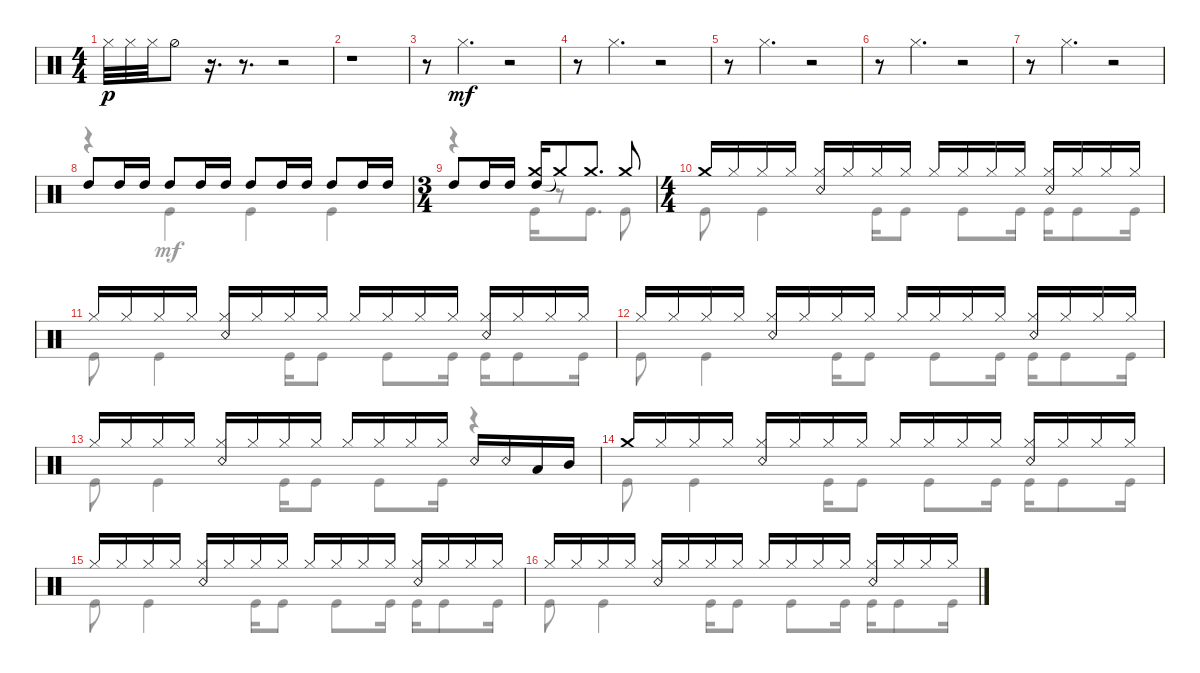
\defaultSystemsLayout 4
\bracketExtendMode groupsimilarinstruments
\singleTrackTrackNamePolicy hidden
\multiTrackTrackNamePolicy hidden
\firstSystemTrackNameOrientation horizontal
\otherSystemsTrackNameOrientation horizontal
\track ("Максим Удалов" "Drums") {instrument percussion}
\staff {score}
\articulation defaults
\voice
\ts (4 4)
\tempo (92 hide)
\clef neutral
\scale
1.02648
\ks c "Hi-Hat (closed)".32{dy p} "Hi-Hat (closed)".32 "Hi-Hat (closed)".32 "Hi-Hat (half)".8
r.16{d} r.8{d} r.2 |
\scale
0.973518 r.1 |
\scale
1.02648 r.8 "Hi-Hat (closed)".4{d dy mf} r.2 |
\scale
0.973518 r.8 "Hi-Hat (closed)".4{d} r.2 |
\scale
1.02648 r.8 "Hi-Hat (closed)".4{d} r.2 |
\scale
0.973518 r.8 "Hi-Hat (closed)".4{d} r.2 |
\scale
1.02648 r.8 "Hi-Hat (closed)".4{d} r.2 |
\tempo (92 hide)
\scale
0.973518 "High Tom (hit)".8 "High Tom (hit)".16 "High Tom (hit)".16 "High Tom (hit)".8 "High Tom (hit)".16 "High Tom (hit)".16 "High Tom (hit)".8 "High Tom (hit)".16 "High Tom (hit)".16 "High Tom (hit)".8 "High Tom (hit)".16 "High Tom (hit)".16 |
\ts (3 4)
\scale
1.02648 "High Tom (hit)".8 "High Tom (hit)".16 "High Tom (hit)".16 ("High Tom (hit)" "Crash medium (hit)").16 "Crash medium (hit)"{t}.8 "Crash medium (hit)".8{d} "Crash medium (hit)".8 |
\ts (4 4)
\tempo (100 hide)
\scale
0.973518 "Crash medium (hit)".16 "Hi-Hat (closed)".16 "Hi-Hat (closed)".16 "Hi-Hat (closed)".16 ("Hi-Hat (closed)" "Snare (rim shot)").16 "Hi-Hat (closed)".16 "Hi-Hat (closed)".16 "Hi-Hat (closed)".16 "Hi-Hat (closed)".16 "Hi-Hat (closed)".16 "Hi-Hat (closed)".16 "Hi-Hat (closed)".16 ("Hi-Hat (closed)" "Snare (rim shot)").16 "Hi-Hat (closed)".16 "Hi-Hat (closed)".16 "Hi-Hat (closed)".16 |
\scale
1.02648 "Hi-Hat (closed)".16 "Hi-Hat (closed)".16 "Hi-Hat (closed)".16 "Hi-Hat (closed)".16 ("Hi-Hat (closed)" "Snare (rim shot)").16 "Hi-Hat (closed)".16 "Hi-Hat (closed)".16 "Hi-Hat (closed)".16 "Hi-Hat (closed)".16 "Hi-Hat (closed)".16 "Hi-Hat (closed)".16 "Hi-Hat (closed)".16 ("Hi-Hat (closed)" "Snare (rim shot)").16 "Hi-Hat (closed)".16 "Hi-Hat (closed)".16 "Hi-Hat (closed)".16 |
\scale
0.973518 "Hi-Hat (closed)".16 "Hi-Hat (closed)".16 "Hi-Hat (closed)".16 "Hi-Hat (closed)".16 ("Hi-Hat (closed)" "Snare (rim shot)").16 "Hi-Hat (closed)".16 "Hi-Hat (closed)".16 "Hi-Hat (closed)".16 "Hi-Hat (closed)".16 "Hi-Hat (closed)".16 "Hi-Hat (closed)".16 "Hi-Hat (closed)".16 ("Hi-Hat (closed)" "Snare (rim shot)").16 "Hi-Hat (closed)".16 "Hi-Hat (closed)".16 "Hi-Hat (closed)".16 |
\scale
1.02648 "Hi-Hat (closed)".16 "Hi-Hat (closed)".16 "Hi-Hat (closed)".16 "Hi-Hat (closed)".16 ("Hi-Hat (closed)" "Snare (rim shot)").16 "Hi-Hat (closed)".16 "Hi-Hat (closed)".16 "Hi-Hat (closed)".16 "Hi-Hat (closed)".16 "Hi-Hat (closed)".16 "Hi-Hat (closed)".16 "Hi-Hat (closed)".16 "Snare (rim shot)".16 "Snare (rim shot)".16 "Low Tom (hit)".16 "Mid Tom (hit)".16 |
\scale
0.973518 "Crash medium (hit)".16 "Hi-Hat (closed)".16 "Hi-Hat (closed)".16 "Hi-Hat (closed)".16 ("Hi-Hat (closed)" "Snare (rim shot)").16 "Hi-Hat (closed)".16 "Hi-Hat (closed)".16 "Hi-Hat (closed)".16 "Hi-Hat (closed)".16 "Hi-Hat (closed)".16 "Hi-Hat (closed)".16 "Hi-Hat (closed)".16 ("Hi-Hat (closed)" "Snare (rim shot)").16 "Hi-Hat (closed)".16 "Hi-Hat (closed)".16 "Hi-Hat (closed)".16 |
\scale
1.02648 "Hi-Hat (closed)".16 "Hi-Hat (closed)".16 "Hi-Hat (closed)".16 "Hi-Hat (closed)".16 ("Hi-Hat (closed)" "Snare (rim shot)").16 "Hi-Hat (closed)".16 "Hi-Hat (closed)".16 "Hi-Hat (closed)".16 "Hi-Hat (closed)".16 "Hi-Hat (closed)".16 "Hi-Hat (closed)".16 "Hi-Hat (closed)".16 ("Hi-Hat (closed)" "Snare (rim shot)").16 "Hi-Hat (closed)".16 "Hi-Hat (closed)".16 "Hi-Hat (closed)".16 |
\scale
0.973518 "Hi-Hat (closed)".16 "Hi-Hat (closed)".16 "Hi-Hat (closed)".16 "Hi-Hat (closed)".16 ("Hi-Hat (closed)" "Snare (rim shot)").16 "Hi-Hat (closed)".16 "Hi-Hat (closed)".16 "Hi-Hat (closed)".16 "Hi-Hat (closed)".16 "Hi-Hat (closed)".16 "Hi-Hat (closed)".16 "Hi-Hat (closed)".16 ("Hi-Hat (closed)" "Snare (rim shot)").16 "Hi-Hat (closed)".16 "Hi-Hat (closed)".16 "Hi-Hat (closed)".16
\voice
\clef neutral
\ottava regular
\simile none
\scale
1.02648
\ks c
|
\scale
0.973518 |
\scale
1.02648 |
\scale
0.973518 |
\scale
1.02648 |
\scale
0.973518 |
\scale
1.02648 |
\scale
0.973518 r.4 "Kick (hit)".4 "Kick (hit)".4 "Kick (hit)".4 |
\scale
1.02648 r.4 "Kick (hit)".16 r.8 "Kick (hit)".8{d} "Kick (hit)".8 |
\scale
0.973518 "Kick (hit)".8 "Kick (hit)".4 "Kick (hit)".16 "Kick (hit)".8 "Kick (hit)".8 "Kick (hit)".16 "Kick (hit)".16 "Kick (hit)".8 "Kick (hit)".16 |
\scale
1.02648 "Kick (hit)".8 "Kick (hit)".4 "Kick (hit)".16 "Kick (hit)".8 "Kick (hit)".8 "Kick (hit)".16 "Kick (hit)".16 "Kick (hit)".8 "Kick (hit)".16 |
\scale
0.973518 "Kick (hit)".8 "Kick (hit)".4 "Kick (hit)".16 "Kick (hit)".8 "Kick (hit)".8 "Kick (hit)".16 "Kick (hit)".16 "Kick (hit)".8 "Kick (hit)".16 |
\scale
1.02648 "Kick (hit)".8 "Kick (hit)".4 "Kick (hit)".16 "Kick (hit)".8 "Kick (hit)".8 "Kick (hit)".16 r.4 |
\scale
0.973518 "Kick (hit)".8 "Kick (hit)".4 "Kick (hit)".16 "Kick (hit)".8 "Kick (hit)".8 "Kick (hit)".16 "Kick (hit)".16 "Kick (hit)".8 "Kick (hit)".16 |
\scale
1.02648 "Kick (hit)".8 "Kick (hit)".4 "Kick (hit)".16 "Kick (hit)".8 "Kick (hit)".8 "Kick (hit)".16 "Kick (hit)".16 "Kick (hit)".8 "Kick (hit)".16 |
\scale
0.973518 "Kick (hit)".8 "Kick (hit)".4 "Kick (hit)".16 "Kick (hit)".8 "Kick (hit)".8 "Kick (hit)".16 "Kick (hit)".16 "Kick (hit)".8 "Kick (hit)".16
